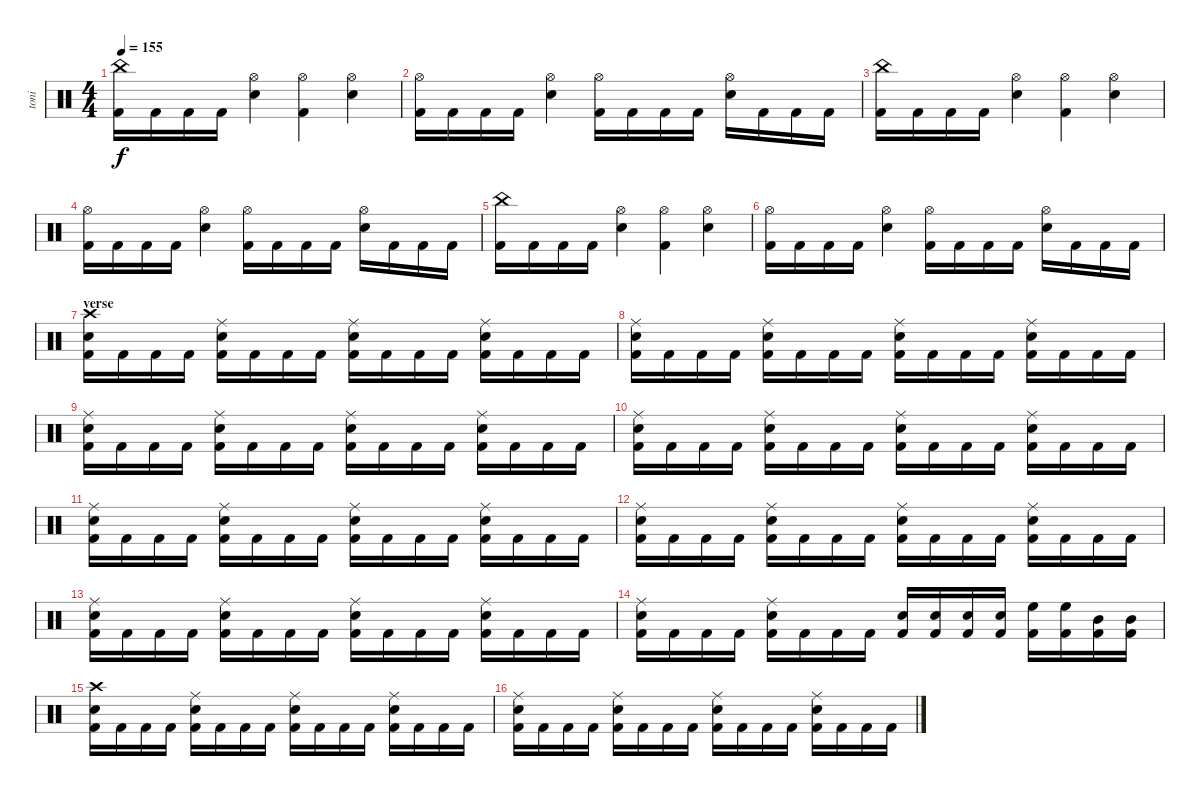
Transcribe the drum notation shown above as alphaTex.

\track ("toni" "toni") {instrument percussion}
\staff {score}
\articulation defaults
\ts (4 4)
\tempo 155
\clef neutral
\ks c
("China (hit)" "Kick (hit) 2").16{dy f} "Kick (hit) 2".16 "Kick (hit) 2".16 "Kick (hit) 2".16 ("Hi-Hat (open)" "Snare (hit) 2").4 ("Hi-Hat (open)" "Kick (hit) 2").4 ("Hi-Hat (open)" "Snare (hit) 2").4 |
("Hi-Hat (open)" "Kick (hit) 2").16 "Kick (hit) 2".16 "Kick (hit) 2".16 "Kick (hit) 2".16 ("Hi-Hat (open)" "Snare (hit) 2").4 ("Hi-Hat (open)" "Kick (hit) 2").16 "Kick (hit) 2".16 "Kick (hit) 2".16 "Kick (hit) 2".16 ("Hi-Hat (open)" "Snare (hit) 2").16 "Kick (hit) 2".16 "Kick (hit) 2".16 "Kick (hit) 2".16 |
("China (hit)" "Kick (hit) 2").16 "Kick (hit) 2".16 "Kick (hit) 2".16 "Kick (hit) 2".16 ("Hi-Hat (open)" "Snare (hit) 2").4 ("Hi-Hat (open)" "Kick (hit) 2").4 ("Hi-Hat (open)" "Snare (hit) 2").4 |
("Hi-Hat (open)" "Kick (hit) 2").16 "Kick (hit) 2".16 "Kick (hit) 2".16 "Kick (hit) 2".16 ("Hi-Hat (open)" "Snare (hit) 2").4 ("Hi-Hat (open)" "Kick (hit) 2").16 "Kick (hit) 2".16 "Kick (hit) 2".16 "Kick (hit) 2".16 ("Hi-Hat (open)" "Snare (hit) 2").16 "Kick (hit) 2".16 "Kick (hit) 2".16 "Kick (hit) 2".16 |
("China (hit)" "Kick (hit) 2").16 "Kick (hit) 2".16 "Kick (hit) 2".16 "Kick (hit) 2".16 ("Hi-Hat (open)" "Snare (hit) 2").4 ("Hi-Hat (open)" "Kick (hit) 2").4 ("Hi-Hat (open)" "Snare (hit) 2").4 |
("Hi-Hat (open)" "Kick (hit) 2").16 "Kick (hit) 2".16 "Kick (hit) 2".16 "Kick (hit) 2".16 ("Hi-Hat (open)" "Snare (hit) 2").4 ("Hi-Hat (open)" "Kick (hit) 2").16 "Kick (hit) 2".16 "Kick (hit) 2".16 "Kick (hit) 2".16 ("Hi-Hat (open)" "Snare (hit) 2").16 "Kick (hit) 2".16 "Kick (hit) 2".16 "Kick (hit) 2".16 |
\section ("" "verse")
("Crash high (hit)" "Snare (hit) 2" "Kick (hit) 2").16 "Kick (hit) 2".16 "Kick (hit) 2".16 "Kick (hit) 2".16 ("Ride (middle)" "Snare (hit) 2" "Kick (hit) 2").16 "Kick (hit) 2".16 "Kick (hit) 2".16 "Kick (hit) 2".16 ("Ride (middle)" "Snare (hit) 2" "Kick (hit) 2").16 "Kick (hit) 2".16 "Kick (hit) 2".16 "Kick (hit) 2".16 ("Ride (middle)" "Snare (hit) 2" "Kick (hit) 2").16 "Kick (hit) 2".16 "Kick (hit) 2".16 "Kick (hit) 2".16 |
("Ride (middle)" "Snare (hit) 2" "Kick (hit) 2").16 "Kick (hit) 2".16 "Kick (hit) 2".16 "Kick (hit) 2".16 ("Ride (middle)" "Snare (hit) 2" "Kick (hit) 2").16 "Kick (hit) 2".16 "Kick (hit) 2".16 "Kick (hit) 2".16 ("Ride (middle)" "Snare (hit) 2" "Kick (hit) 2").16 "Kick (hit) 2".16 "Kick (hit) 2".16 "Kick (hit) 2".16 ("Ride (middle)" "Snare (hit) 2" "Kick (hit) 2").16 "Kick (hit) 2".16 "Kick (hit) 2".16 "Kick (hit) 2".16 |
("Ride (middle)" "Snare (hit) 2" "Kick (hit) 2").16 "Kick (hit) 2".16 "Kick (hit) 2".16 "Kick (hit) 2".16 ("Ride (middle)" "Snare (hit) 2" "Kick (hit) 2").16 "Kick (hit) 2".16 "Kick (hit) 2".16 "Kick (hit) 2".16 ("Ride (middle)" "Snare (hit) 2" "Kick (hit) 2").16 "Kick (hit) 2".16 "Kick (hit) 2".16 "Kick (hit) 2".16 ("Ride (middle)" "Snare (hit) 2" "Kick (hit) 2").16 "Kick (hit) 2".16 "Kick (hit) 2".16 "Kick (hit) 2".16 |
("Ride (middle)" "Snare (hit) 2" "Kick (hit) 2").16 "Kick (hit) 2".16 "Kick (hit) 2".16 "Kick (hit) 2".16 ("Ride (middle)" "Snare (hit) 2" "Kick (hit) 2").16 "Kick (hit) 2".16 "Kick (hit) 2".16 "Kick (hit) 2".16 ("Ride (middle)" "Snare (hit) 2" "Kick (hit) 2").16 "Kick (hit) 2".16 "Kick (hit) 2".16 "Kick (hit) 2".16 ("Ride (middle)" "Snare (hit) 2" "Kick (hit) 2").16 "Kick (hit) 2".16 "Kick (hit) 2".16 "Kick (hit) 2".16 |
("Ride (middle)" "Snare (hit) 2" "Kick (hit) 2").16 "Kick (hit) 2".16 "Kick (hit) 2".16 "Kick (hit) 2".16 ("Ride (middle)" "Snare (hit) 2" "Kick (hit) 2").16 "Kick (hit) 2".16 "Kick (hit) 2".16 "Kick (hit) 2".16 ("Ride (middle)" "Snare (hit) 2" "Kick (hit) 2").16 "Kick (hit) 2".16 "Kick (hit) 2".16 "Kick (hit) 2".16 ("Ride (middle)" "Snare (hit) 2" "Kick (hit) 2").16 "Kick (hit) 2".16 "Kick (hit) 2".16 "Kick (hit) 2".16 |
("Ride (middle)" "Snare (hit) 2" "Kick (hit) 2").16 "Kick (hit) 2".16 "Kick (hit) 2".16 "Kick (hit) 2".16 ("Ride (middle)" "Snare (hit) 2" "Kick (hit) 2").16 "Kick (hit) 2".16 "Kick (hit) 2".16 "Kick (hit) 2".16 ("Ride (middle)" "Snare (hit) 2" "Kick (hit) 2").16 "Kick (hit) 2".16 "Kick (hit) 2".16 "Kick (hit) 2".16 ("Ride (middle)" "Snare (hit) 2" "Kick (hit) 2").16 "Kick (hit) 2".16 "Kick (hit) 2".16 "Kick (hit) 2".16 |
("Ride (middle)" "Snare (hit) 2" "Kick (hit) 2").16 "Kick (hit) 2".16 "Kick (hit) 2".16 "Kick (hit) 2".16 ("Ride (middle)" "Snare (hit) 2" "Kick (hit) 2").16 "Kick (hit) 2".16 "Kick (hit) 2".16 "Kick (hit) 2".16 ("Ride (middle)" "Snare (hit) 2" "Kick (hit) 2").16 "Kick (hit) 2".16 "Kick (hit) 2".16 "Kick (hit) 2".16 ("Ride (middle)" "Snare (hit) 2" "Kick (hit) 2").16 "Kick (hit) 2".16 "Kick (hit) 2".16 "Kick (hit) 2".16 |
("Ride (middle)" "Snare (hit) 2" "Kick (hit) 2").16 "Kick (hit) 2".16 "Kick (hit) 2".16 "Kick (hit) 2".16 ("Ride (middle)" "Snare (hit) 2" "Kick (hit) 2").16 "Kick (hit) 2".16 "Kick (hit) 2".16 "Kick (hit) 2".16 ("Snare (hit) 2" "Kick (hit) 2").16 ("Snare (hit) 2" "Kick (hit) 2").16 ("Snare (hit) 2" "Kick (hit) 2").16 ("Snare (hit) 2" "Kick (hit) 2").16 ("High Floor Tom (hit)" "Kick (hit) 2").16 ("High Floor Tom (hit)" "Kick (hit) 2").16 ("Mid Tom (hit)" "Kick (hit) 2").16 ("Mid Tom (hit)" "Kick (hit) 2").16 |
("Crash high (hit)" "Snare (hit) 2" "Kick (hit) 2").16 "Kick (hit) 2".16 "Kick (hit) 2".16 "Kick (hit) 2".16 ("Ride (middle)" "Snare (hit) 2" "Kick (hit) 2").16 "Kick (hit) 2".16 "Kick (hit) 2".16 "Kick (hit) 2".16 ("Ride (middle)" "Snare (hit) 2" "Kick (hit) 2").16 "Kick (hit) 2".16 "Kick (hit) 2".16 "Kick (hit) 2".16 ("Ride (middle)" "Snare (hit) 2" "Kick (hit) 2").16 "Kick (hit) 2".16 "Kick (hit) 2".16 "Kick (hit) 2".16 |
("Ride (middle)" "Snare (hit) 2" "Kick (hit) 2").16 "Kick (hit) 2".16 "Kick (hit) 2".16 "Kick (hit) 2".16 ("Ride (middle)" "Snare (hit) 2" "Kick (hit) 2").16 "Kick (hit) 2".16 "Kick (hit) 2".16 "Kick (hit) 2".16 ("Ride (middle)" "Snare (hit) 2" "Kick (hit) 2").16 "Kick (hit) 2".16 "Kick (hit) 2".16 "Kick (hit) 2".16 ("Ride (middle)" "Snare (hit) 2" "Kick (hit) 2").16 "Kick (hit) 2".16 "Kick (hit) 2".16 "Kick (hit) 2".16
